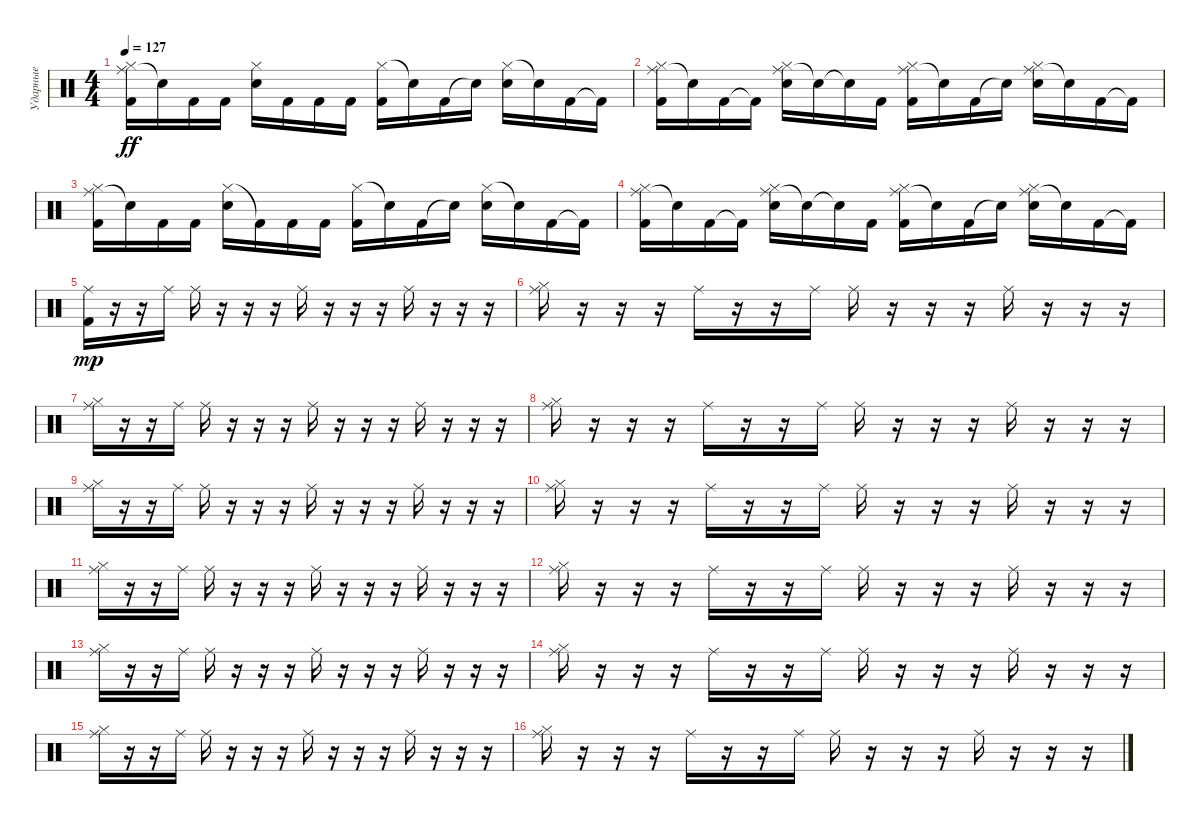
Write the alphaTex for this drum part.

\track ("Ударные" "Ударные") {instrument percussion}
\staff {score}
\articulation defaults
\ts (4 4)
\tempo 127
\clef neutral
\ks c
("Ride (middle)" "Hi-Hat (closed)" "Kick (hit) 2").16{dy ff} "Snare (hit)"{t}.16 "Kick (hit) 2".16 "Kick (hit) 2".16 ("Hi-Hat (closed)" "Electric Snare (hit)").16 "Kick (hit) 2".16 "Kick (hit) 2".16 "Kick (hit) 2".16 ("Hi-Hat (closed)" "Kick (hit) 2").16 "Snare (hit)"{t}.16 "Kick (hit) 2".16 "Snare (hit)"{t}.16 ("Hi-Hat (closed)" "Electric Snare (hit)").16 "Snare (hit)"{t}.16 "Kick (hit) 2".16 "Kick (hit) 2"{t}.16 |
("Ride (middle)" "Hi-Hat (closed)" "Kick (hit) 2").16 "Snare (hit)"{t}.16 "Kick (hit) 2".16 "Kick (hit) 2"{t}.16 ("Ride (middle)" "Hi-Hat (closed)" "Electric Snare (hit)").16 "Snare (hit)"{t}.16 "Snare (hit)"{t}.16 "Kick (hit) 2".16 ("Ride (middle)" "Hi-Hat (closed)" "Kick (hit) 2").16 "Snare (hit)"{t}.16 "Kick (hit) 2".16 "Snare (hit)"{t}.16 ("Ride (middle)" "Hi-Hat (closed)" "Electric Snare (hit)").16 "Snare (hit)"{t}.16 "Kick (hit) 2".16 "Kick (hit) 2"{t}.16 |
("Ride (middle)" "Hi-Hat (closed)" "Kick (hit) 2").16 "Snare (hit)"{t}.16 "Kick (hit) 2".16 "Kick (hit) 2".16 ("Hi-Hat (closed)" "Electric Snare (hit)").16 "Kick (hit) 2"{t}.16 "Kick (hit) 2".16 "Kick (hit) 2".16 ("Hi-Hat (closed)" "Kick (hit) 2").16 "Snare (hit)"{t}.16 "Kick (hit) 2".16 "Snare (hit)"{t}.16 ("Hi-Hat (closed)" "Electric Snare (hit)").16 "Snare (hit)"{t}.16 "Kick (hit) 2".16 "Kick (hit) 2"{t}.16 |
("Ride (middle)" "Hi-Hat (closed)" "Kick (hit) 2").16 "Snare (hit)"{t}.16 "Kick (hit) 2".16 "Kick (hit) 2"{t}.16 ("Ride (middle)" "Hi-Hat (closed)" "Electric Snare (hit)").16 "Snare (hit)"{t}.16 "Snare (hit)"{t}.16 "Kick (hit) 2".16 ("Ride (middle)" "Hi-Hat (closed)" "Kick (hit) 2").16 "Snare (hit)"{t}.16 "Kick (hit) 2".16 "Snare (hit)"{t}.16 ("Ride (middle)" "Hi-Hat (closed)" "Electric Snare (hit)").16 "Snare (hit)"{t}.16 "Kick (hit) 2".16 "Kick (hit) 2"{t}.16 |
("Ride (middle)" "Kick (hit) 2").16{dy mp} r.16 r.16 "Ride (middle)".16 "Ride (middle)".16 r.16 r.16 r.16 "Ride (middle)".16 r.16 r.16 r.16 "Ride (middle)".16 r.16 r.16 r.16 |
("Ride (middle)" "Hi-Hat (closed)").16 r.16 r.16 r.16 "Ride (middle)".16 r.16 r.16 "Ride (middle)".16 "Ride (middle)".16 r.16 r.16 r.16 "Ride (middle)".16 r.16 r.16 r.16 |
("Ride (middle)" "Hi-Hat (closed)").16 r.16 r.16 "Ride (middle)".16 "Ride (middle)".16 r.16 r.16 r.16 "Ride (middle)".16 r.16 r.16 r.16 "Ride (middle)".16 r.16 r.16 r.16 |
("Ride (middle)" "Hi-Hat (closed)").16 r.16 r.16 r.16 "Ride (middle)".16 r.16 r.16 "Ride (middle)".16 "Ride (middle)".16 r.16 r.16 r.16 "Ride (middle)".16 r.16 r.16 r.16 |
("Ride (middle)" "Hi-Hat (closed)").16 r.16 r.16 "Ride (middle)".16 "Ride (middle)".16 r.16 r.16 r.16 "Ride (middle)".16 r.16 r.16 r.16 "Ride (middle)".16 r.16 r.16 r.16 |
("Ride (middle)" "Hi-Hat (closed)").16 r.16 r.16 r.16 "Ride (middle)".16 r.16 r.16 "Ride (middle)".16 "Ride (middle)".16 r.16 r.16 r.16 "Ride (middle)".16 r.16 r.16 r.16 |
("Ride (middle)" "Hi-Hat (closed)").16 r.16 r.16 "Ride (middle)".16 "Ride (middle)".16 r.16 r.16 r.16 "Ride (middle)".16 r.16 r.16 r.16 "Ride (middle)".16 r.16 r.16 r.16 |
("Ride (middle)" "Hi-Hat (closed)").16 r.16 r.16 r.16 "Ride (middle)".16 r.16 r.16 "Ride (middle)".16 "Ride (middle)".16 r.16 r.16 r.16 "Ride (middle)".16 r.16 r.16 r.16 |
("Ride (middle)" "Hi-Hat (closed)").16 r.16 r.16 "Ride (middle)".16 "Ride (middle)".16 r.16 r.16 r.16 "Ride (middle)".16 r.16 r.16 r.16 "Ride (middle)".16 r.16 r.16 r.16 |
("Ride (middle)" "Hi-Hat (closed)").16 r.16 r.16 r.16 "Ride (middle)".16 r.16 r.16 "Ride (middle)".16 "Ride (middle)".16 r.16 r.16 r.16 "Ride (middle)".16 r.16 r.16 r.16 |
("Ride (middle)" "Hi-Hat (closed)").16 r.16 r.16 "Ride (middle)".16 "Ride (middle)".16 r.16 r.16 r.16 "Ride (middle)".16 r.16 r.16 r.16 "Ride (middle)".16 r.16 r.16 r.16 |
("Ride (middle)" "Hi-Hat (closed)").16 r.16 r.16 r.16 "Ride (middle)".16 r.16 r.16 "Ride (middle)".16 "Ride (middle)".16 r.16 r.16 r.16 "Ride (middle)".16 r.16 r.16 r.16
